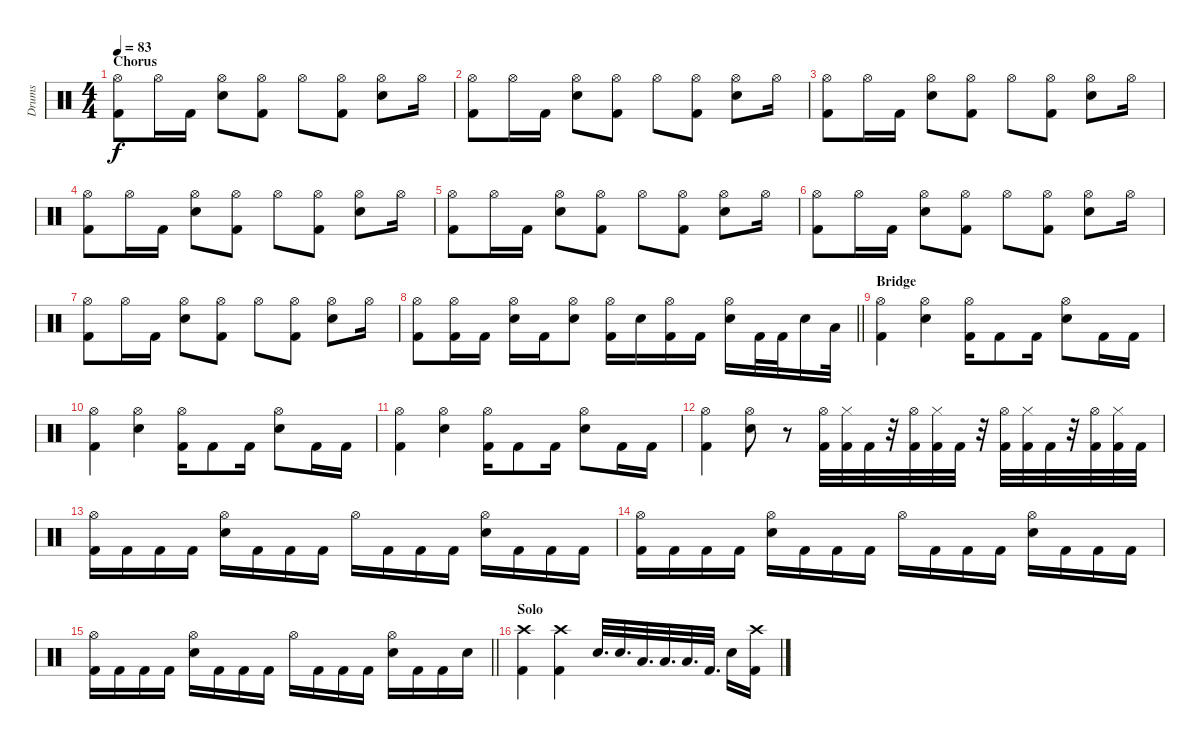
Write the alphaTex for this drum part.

\track ("Drums" "Drums") {instrument percussion}
\staff {score}
\articulation defaults
\ts (4 4)
\section ("" "Chorus")
\tempo 83
\clef neutral
\ks c
("Hi-Hat (open)" "Kick (hit) 2").8{dy f} "Hi-Hat (open)".16 "Kick (hit) 2".16 ("Hi-Hat (open)" "Snare (hit) 2").8 ("Hi-Hat (open)" "Kick (hit) 2").8 "Hi-Hat (open)".8 ("Hi-Hat (open)" "Kick (hit) 2").8 ("Hi-Hat (open)" "Snare (hit) 2").8 "Hi-Hat (open)".16 |
("Hi-Hat (open)" "Kick (hit) 2").8 "Hi-Hat (open)".16 "Kick (hit) 2".16 ("Hi-Hat (open)" "Snare (hit) 2").8 ("Hi-Hat (open)" "Kick (hit) 2").8 "Hi-Hat (open)".8 ("Hi-Hat (open)" "Kick (hit) 2").8 ("Hi-Hat (open)" "Snare (hit) 2").8 "Hi-Hat (open)".16 |
("Hi-Hat (open)" "Kick (hit) 2").8 "Hi-Hat (open)".16 "Kick (hit) 2".16 ("Hi-Hat (open)" "Snare (hit) 2").8 ("Hi-Hat (open)" "Kick (hit) 2").8 "Hi-Hat (open)".8 ("Hi-Hat (open)" "Kick (hit) 2").8 ("Hi-Hat (open)" "Snare (hit) 2").8 "Hi-Hat (open)".16 |
("Hi-Hat (open)" "Kick (hit) 2").8 "Hi-Hat (open)".16 "Kick (hit) 2".16 ("Hi-Hat (open)" "Snare (hit) 2").8 ("Hi-Hat (open)" "Kick (hit) 2").8 "Hi-Hat (open)".8 ("Hi-Hat (open)" "Kick (hit) 2").8 ("Hi-Hat (open)" "Snare (hit) 2").8 "Hi-Hat (open)".16 |
("Hi-Hat (open)" "Kick (hit) 2").8 "Hi-Hat (open)".16 "Kick (hit) 2".16 ("Hi-Hat (open)" "Snare (hit) 2").8 ("Hi-Hat (open)" "Kick (hit) 2").8 "Hi-Hat (open)".8 ("Hi-Hat (open)" "Kick (hit) 2").8 ("Hi-Hat (open)" "Snare (hit) 2").8 "Hi-Hat (open)".16 |
("Hi-Hat (open)" "Kick (hit) 2").8 "Hi-Hat (open)".16 "Kick (hit) 2".16 ("Hi-Hat (open)" "Snare (hit) 2").8 ("Hi-Hat (open)" "Kick (hit) 2").8 "Hi-Hat (open)".8 ("Hi-Hat (open)" "Kick (hit) 2").8 ("Hi-Hat (open)" "Snare (hit) 2").8 "Hi-Hat (open)".16 |
("Hi-Hat (open)" "Kick (hit) 2").8 "Hi-Hat (open)".16 "Kick (hit) 2".16 ("Hi-Hat (open)" "Snare (hit) 2").8 ("Hi-Hat (open)" "Kick (hit) 2").8 "Hi-Hat (open)".8 ("Hi-Hat (open)" "Kick (hit) 2").8 ("Hi-Hat (open)" "Snare (hit) 2").8 "Hi-Hat (open)".16 |
\barLineRight lightlight
("Hi-Hat (open)" "Kick (hit) 2").8 ("Hi-Hat (open)" "Kick (hit) 2").16 "Kick (hit) 2".16 ("Hi-Hat (open)" "Snare (hit) 2").16 "Kick (hit) 2".16 ("Hi-Hat (open)" "Snare (hit) 2").8 ("Hi-Hat (open)" "Kick (hit) 2").16 "Snare (hit) 2".16 ("Hi-Hat (open)" "Kick (hit) 2").16 "Kick (hit) 2".16 ("Hi-Hat (open)" "Snare (hit) 2").16 "Kick (hit) 2".32 "Kick (hit) 2".32 "Snare (hit) 2".16 "Low Floor Tom (hit)".32 |
\section ("" "Bridge")
("Hi-Hat (open)" "Kick (hit) 2").4 ("Hi-Hat (open)" "Snare (hit) 2").4 ("Hi-Hat (open)" "Kick (hit) 2").16 "Kick (hit) 2".8 "Kick (hit) 2".16 ("Hi-Hat (open)" "Snare (hit) 2").8 "Kick (hit) 2".16 "Kick (hit) 2".16 |
("Hi-Hat (open)" "Kick (hit) 2").4 ("Hi-Hat (open)" "Snare (hit) 2").4 ("Hi-Hat (open)" "Kick (hit) 2").16 "Kick (hit) 2".8 "Kick (hit) 2".16 ("Hi-Hat (open)" "Snare (hit) 2").8 "Kick (hit) 2".16 "Kick (hit) 2".16 |
("Hi-Hat (open)" "Kick (hit) 2").4 ("Hi-Hat (open)" "Snare (hit) 2").4 ("Hi-Hat (open)" "Kick (hit) 2").16 "Kick (hit) 2".8 "Kick (hit) 2".16 ("Hi-Hat (open)" "Snare (hit) 2").8 "Kick (hit) 2".16 "Kick (hit) 2".16 |
("Hi-Hat (open)" "Kick (hit) 2").4 ("Hi-Hat (open)" "Snare (hit) 2").8 r.8 ("Hi-Hat (open)" "Kick (hit) 2").32 ("Hi-Hat (closed)" "Kick (hit) 2").32 "Kick (hit) 2".32 r.32 ("Hi-Hat (open)" "Kick (hit) 2").32 ("Hi-Hat (closed)" "Kick (hit) 2").32 "Kick (hit) 2".32 r.32 ("Hi-Hat (open)" "Kick (hit) 2").32 ("Hi-Hat (closed)" "Kick (hit) 2").32 "Kick (hit) 2".32 r.32 ("Hi-Hat (open)" "Kick (hit) 2").32 ("Hi-Hat (closed)" "Kick (hit) 2").32 "Kick (hit) 2".32 |
("Hi-Hat (open)" "Kick (hit) 2").16 "Kick (hit) 2".16 "Kick (hit) 2".16 "Kick (hit) 2".16 ("Hi-Hat (open)" "Snare (hit) 2").16 "Kick (hit) 2".16 "Kick (hit) 2".16 "Kick (hit) 2".16 "Hi-Hat (open)".16 "Kick (hit) 2".16 "Kick (hit) 2".16 "Kick (hit) 2".16 ("Hi-Hat (open)" "Snare (hit) 2").16 "Kick (hit) 2".16 "Kick (hit) 2".16 "Kick (hit) 2".16 |
("Hi-Hat (open)" "Kick (hit) 2").16 "Kick (hit) 2".16 "Kick (hit) 2".16 "Kick (hit) 2".16 ("Hi-Hat (open)" "Snare (hit) 2").16 "Kick (hit) 2".16 "Kick (hit) 2".16 "Kick (hit) 2".16 "Hi-Hat (open)".16 "Kick (hit) 2".16 "Kick (hit) 2".16 "Kick (hit) 2".16 ("Hi-Hat (open)" "Snare (hit) 2").16 "Kick (hit) 2".16 "Kick (hit) 2".16 "Kick (hit) 2".16 |
\barLineRight lightlight
("Hi-Hat (open)" "Kick (hit) 2").16 "Kick (hit) 2".16 "Kick (hit) 2".16 "Kick (hit) 2".16 ("Hi-Hat (open)" "Snare (hit) 2").16 "Kick (hit) 2".16 "Kick (hit) 2".16 "Kick (hit) 2".16 "Hi-Hat (open)".16 "Kick (hit) 2".16 "Kick (hit) 2".16 "Kick (hit) 2".16 ("Hi-Hat (open)" "Snare (hit) 2").16 "Kick (hit) 2".16 "Kick (hit) 2".16 "Snare (hit) 2".16 |
\section ("" "Solo")
("Crash high (hit)" "Kick (hit) 2").4 ("Crash high (hit)" "Kick (hit) 2").4 "Snare (hit) 2".32{d} "Snare (hit) 2".32{d} "Low Floor Tom (hit)".32{d} "Low Floor Tom (hit)".32{d} "Low Tom (hit)".32{d} "Kick (hit) 2".32{d} "Snare (hit) 2".16 ("Crash high (hit)" "Kick (hit) 2").16
